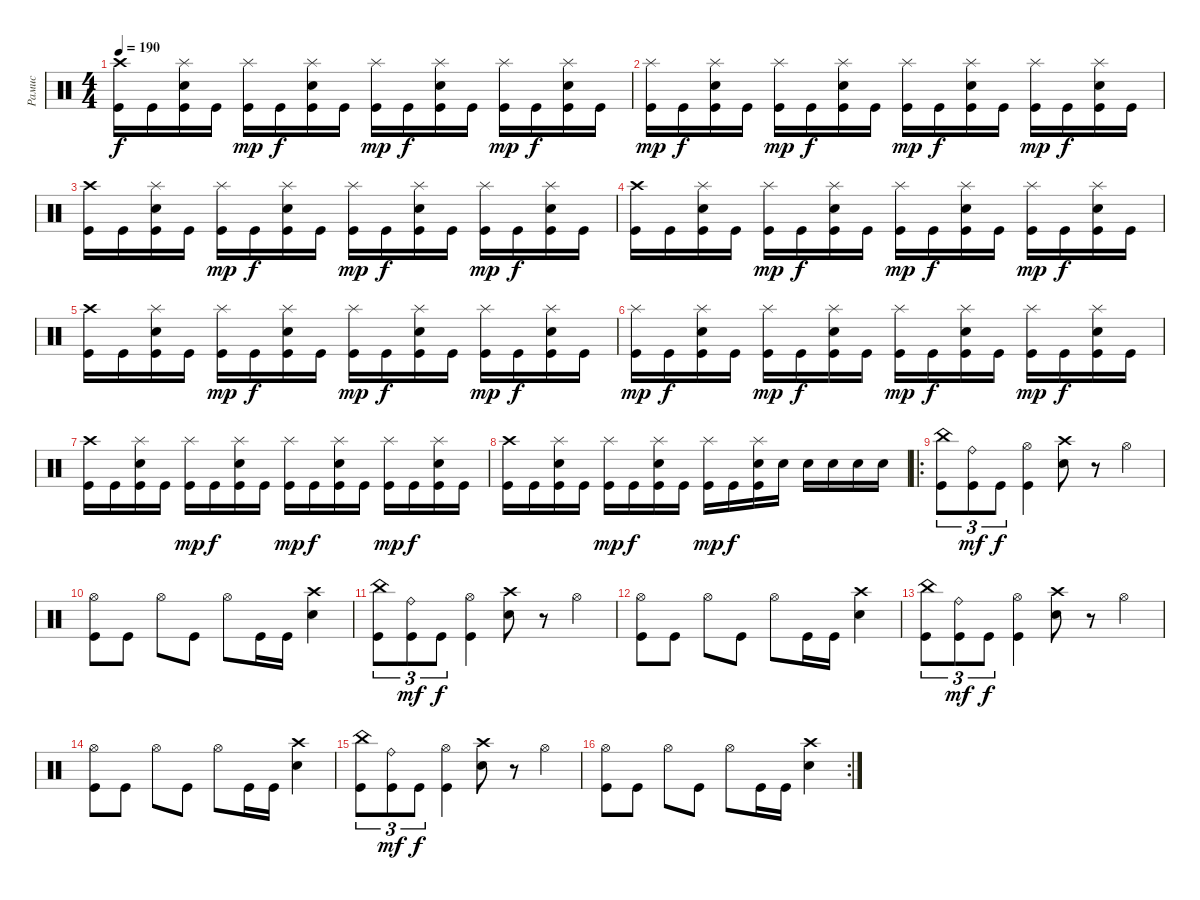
\track ("Рамис" "Рамис") {instrument percussion}
\staff {score}
\articulation defaults
\ts (4 4)
\tempo 190
\clef neutral
\ks c
("Crash high (hit)" "Kick (hit)").16{dy f} "Kick (hit)".16 ("Splash (hit)" "Electric Snare (hit)" "Kick (hit)").16 "Kick (hit)".16 ("Splash (hit)" "Kick (hit)").16{dy mp} "Kick (hit)".16{dy f} ("Splash (hit)" "Electric Snare (hit)" "Kick (hit)").16 "Kick (hit)".16 ("Splash (hit)" "Kick (hit)").16{dy mp} "Kick (hit)".16{dy f} ("Splash (hit)" "Electric Snare (hit)" "Kick (hit)").16 "Kick (hit)".16 ("Splash (hit)" "Kick (hit)").16{dy mp} "Kick (hit)".16{dy f} ("Splash (hit)" "Electric Snare (hit)" "Kick (hit)").16 "Kick (hit)".16 |
("Splash (hit)" "Kick (hit)").16{dy mp} "Kick (hit)".16{dy f} ("Splash (hit)" "Electric Snare (hit)" "Kick (hit)").16 "Kick (hit)".16 ("Splash (hit)" "Kick (hit)").16{dy mp} "Kick (hit)".16{dy f} ("Splash (hit)" "Electric Snare (hit)" "Kick (hit)").16 "Kick (hit)".16 ("Splash (hit)" "Kick (hit)").16{dy mp} "Kick (hit)".16{dy f} ("Splash (hit)" "Electric Snare (hit)" "Kick (hit)").16 "Kick (hit)".16 ("Splash (hit)" "Kick (hit)").16{dy mp} "Kick (hit)".16{dy f} ("Splash (hit)" "Electric Snare (hit)" "Kick (hit)").16 "Kick (hit)".16 |
("Crash high (hit)" "Kick (hit)").16 "Kick (hit)".16 ("Splash (hit)" "Electric Snare (hit)" "Kick (hit)").16 "Kick (hit)".16 ("Splash (hit)" "Kick (hit)").16{dy mp} "Kick (hit)".16{dy f} ("Splash (hit)" "Electric Snare (hit)" "Kick (hit)").16 "Kick (hit)".16 ("Splash (hit)" "Kick (hit)").16{dy mp} "Kick (hit)".16{dy f} ("Splash (hit)" "Electric Snare (hit)" "Kick (hit)").16 "Kick (hit)".16 ("Splash (hit)" "Kick (hit)").16{dy mp} "Kick (hit)".16{dy f} ("Splash (hit)" "Electric Snare (hit)" "Kick (hit)").16 "Kick (hit)".16 |
("Crash high (hit)" "Kick (hit)").16 "Kick (hit)".16 ("Splash (hit)" "Electric Snare (hit)" "Kick (hit)").16 "Kick (hit)".16 ("Splash (hit)" "Kick (hit)").16{dy mp} "Kick (hit)".16{dy f} ("Splash (hit)" "Electric Snare (hit)" "Kick (hit)").16 "Kick (hit)".16 ("Splash (hit)" "Kick (hit)").16{dy mp} "Kick (hit)".16{dy f} ("Splash (hit)" "Electric Snare (hit)" "Kick (hit)").16 "Kick (hit)".16 ("Splash (hit)" "Kick (hit)").16{dy mp} "Kick (hit)".16{dy f} ("Splash (hit)" "Electric Snare (hit)" "Kick (hit)").16 "Kick (hit)".16 |
("Crash high (hit)" "Kick (hit)").16 "Kick (hit)".16 ("Splash (hit)" "Electric Snare (hit)" "Kick (hit)").16 "Kick (hit)".16 ("Splash (hit)" "Kick (hit)").16{dy mp} "Kick (hit)".16{dy f} ("Splash (hit)" "Electric Snare (hit)" "Kick (hit)").16 "Kick (hit)".16 ("Splash (hit)" "Kick (hit)").16{dy mp} "Kick (hit)".16{dy f} ("Splash (hit)" "Electric Snare (hit)" "Kick (hit)").16 "Kick (hit)".16 ("Splash (hit)" "Kick (hit)").16{dy mp} "Kick (hit)".16{dy f} ("Splash (hit)" "Electric Snare (hit)" "Kick (hit)").16 "Kick (hit)".16 |
("Splash (hit)" "Kick (hit)").16{dy mp} "Kick (hit)".16{dy f} ("Splash (hit)" "Electric Snare (hit)" "Kick (hit)").16 "Kick (hit)".16 ("Splash (hit)" "Kick (hit)").16{dy mp} "Kick (hit)".16{dy f} ("Splash (hit)" "Electric Snare (hit)" "Kick (hit)").16 "Kick (hit)".16 ("Splash (hit)" "Kick (hit)").16{dy mp} "Kick (hit)".16{dy f} ("Splash (hit)" "Electric Snare (hit)" "Kick (hit)").16 "Kick (hit)".16 ("Splash (hit)" "Kick (hit)").16{dy mp} "Kick (hit)".16{dy f} ("Splash (hit)" "Electric Snare (hit)" "Kick (hit)").16 "Kick (hit)".16 |
("Crash high (hit)" "Kick (hit)").16 "Kick (hit)".16 ("Splash (hit)" "Electric Snare (hit)" "Kick (hit)").16 "Kick (hit)".16 ("Splash (hit)" "Kick (hit)").16{dy mp} "Kick (hit)".16{dy f} ("Splash (hit)" "Electric Snare (hit)" "Kick (hit)").16 "Kick (hit)".16 ("Splash (hit)" "Kick (hit)").16{dy mp} "Kick (hit)".16{dy f} ("Splash (hit)" "Electric Snare (hit)" "Kick (hit)").16 "Kick (hit)".16 ("Splash (hit)" "Kick (hit)").16{dy mp} "Kick (hit)".16{dy f} ("Splash (hit)" "Electric Snare (hit)" "Kick (hit)").16 "Kick (hit)".16 |
("Crash high (hit)" "Kick (hit)").16 "Kick (hit)".16 ("Splash (hit)" "Electric Snare (hit)" "Kick (hit)").16 "Kick (hit)".16 ("Splash (hit)" "Kick (hit)").16{dy mp} "Kick (hit)".16{dy f} ("Splash (hit)" "Electric Snare (hit)" "Kick (hit)").16 "Kick (hit)".16 ("Splash (hit)" "Kick (hit)").16{dy mp} "Kick (hit)".16{dy f} ("Splash (hit)" "Electric Snare (hit)" "Kick (hit)").16 "Electric Snare (hit)".16 "Electric Snare (hit)".16 "Electric Snare (hit)".16 "Electric Snare (hit)".16 "Electric Snare (hit)".16 |
\ro
("China (hit)" "Kick (hit)").8{tu (3 2)} ("Ride (bell)" "Kick (hit)").8{tu (3 2) dy mf} "Kick (hit)".8{tu (3 2) dy f} ("Hi-Hat (open)" "Kick (hit)").4 ("Crash high (hit)" "Electric Snare (hit)").8 r.8 "Hi-Hat (open)".4 |
("Hi-Hat (open)" "Kick (hit)").8 "Kick (hit)".8 "Hi-Hat (open)".8 "Kick (hit)".8 "Hi-Hat (open)".8 "Kick (hit)".16 "Kick (hit)".16 ("Crash high (hit)" "Electric Snare (hit)").4 |
("China (hit)" "Kick (hit)").8{tu (3 2)} ("Ride (bell)" "Kick (hit)").8{tu (3 2) dy mf} "Kick (hit)".8{tu (3 2) dy f} ("Hi-Hat (open)" "Kick (hit)").4 ("Crash high (hit)" "Electric Snare (hit)").8 r.8 "Hi-Hat (open)".4 |
("Hi-Hat (open)" "Kick (hit)").8 "Kick (hit)".8 "Hi-Hat (open)".8 "Kick (hit)".8 "Hi-Hat (open)".8 "Kick (hit)".16 "Kick (hit)".16 ("Crash high (hit)" "Electric Snare (hit)").4 |
("China (hit)" "Kick (hit)").8{tu (3 2)} ("Ride (bell)" "Kick (hit)").8{tu (3 2) dy mf} "Kick (hit)".8{tu (3 2) dy f} ("Hi-Hat (open)" "Kick (hit)").4 ("Crash high (hit)" "Electric Snare (hit)").8 r.8 "Hi-Hat (open)".4 |
("Hi-Hat (open)" "Kick (hit)").8 "Kick (hit)".8 "Hi-Hat (open)".8 "Kick (hit)".8 "Hi-Hat (open)".8 "Kick (hit)".16 "Kick (hit)".16 ("Crash high (hit)" "Electric Snare (hit)").4 |
("China (hit)" "Kick (hit)").8{tu (3 2)} ("Ride (bell)" "Kick (hit)").8{tu (3 2) dy mf} "Kick (hit)".8{tu (3 2) dy f} ("Hi-Hat (open)" "Kick (hit)").4 ("Crash high (hit)" "Electric Snare (hit)").8 r.8 "Hi-Hat (open)".4 |
\rc 2
("Hi-Hat (open)" "Kick (hit)").8 "Kick (hit)".8 "Hi-Hat (open)".8 "Kick (hit)".8 "Hi-Hat (open)".8 "Kick (hit)".16 "Kick (hit)".16 ("Crash high (hit)" "Electric Snare (hit)").4
